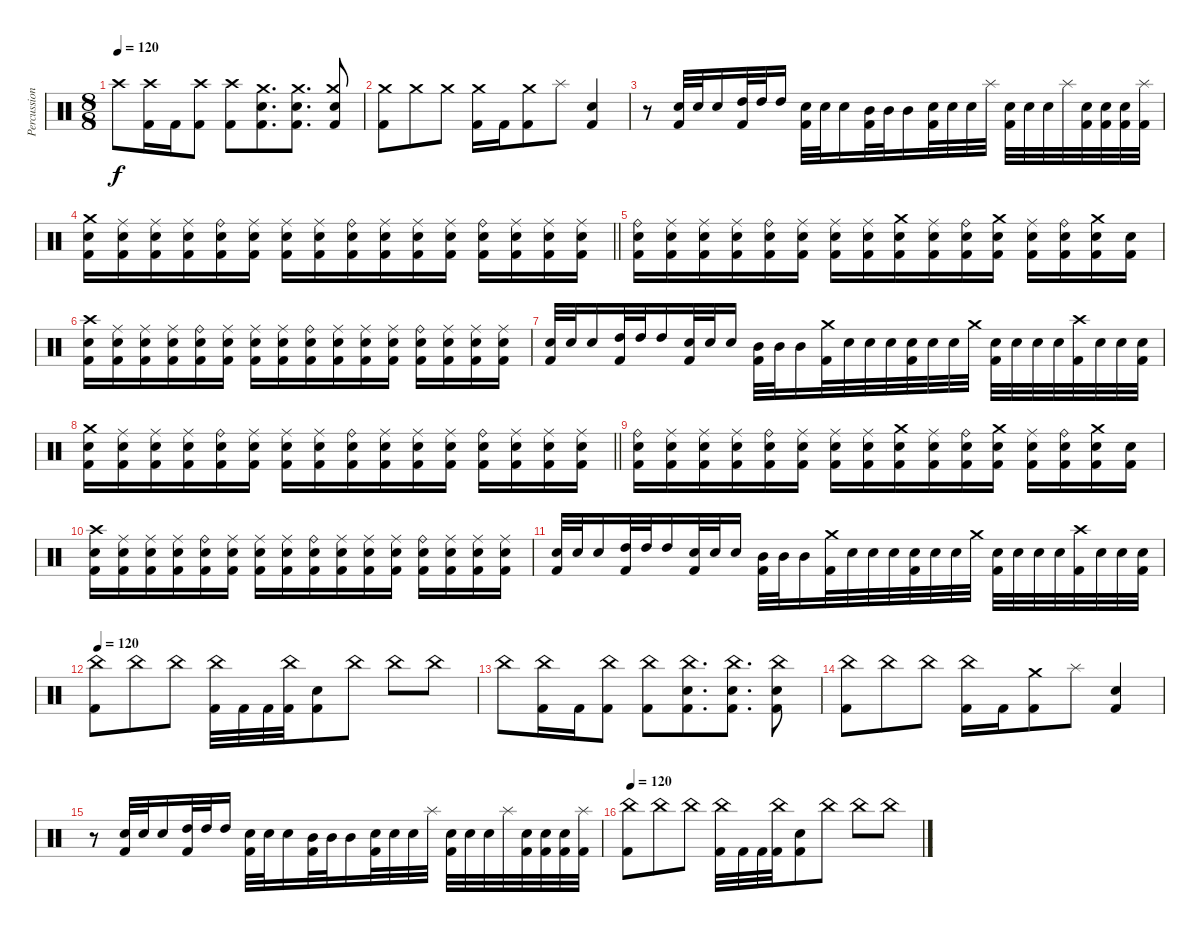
\track ("Percussions" "Percussion") {instrument percussion}
\staff {score}
\articulation defaults
\ts (8 8)
\tempo 120
\clef neutral
\ks c "Crash high (hit)".8{dy f}
("Crash high (hit)" "Kick (hit) 2").16 "Kick (hit) 2".16 ("Crash high (hit)" "Kick (hit) 2").8 ("Crash high (hit)" "Kick (hit) 2").8 ("Crash medium (hit)" "Electric Snare (hit)" "Kick (hit) 2").8{d} ("Crash medium (hit)" "Electric Snare (hit)" "Kick (hit) 2").8{d} ("Crash medium (hit)" "Electric Snare (hit)" "Kick (hit) 2").8 |
("Crash medium (hit)" "Kick (hit) 2").8 "Crash medium (hit)".8 "Crash medium (hit)".8 ("Crash medium (hit)" "Kick (hit) 2").16 "Kick (hit) 2".16 ("Crash medium (hit)" "Kick (hit) 2").8 "Splash (hit)".8 ("Electric Snare (hit)" "Kick (hit) 2").4 |
r.8 ("Electric Snare (hit)" "Kick (hit) 2").32 "Electric Snare (hit)".32 "Electric Snare (hit)".16 ("High Tom (hit)" "Kick (hit) 2").32 "High Tom (hit)".32 "High Tom (hit)".16 ("Electric Snare (hit)" "Kick (hit) 2").32 "Electric Snare (hit)".32 "Electric Snare (hit)".16 ("Mid Tom (hit)" "Kick (hit) 2").32 "Mid Tom (hit)".32 "Mid Tom (hit)".16 ("Electric Snare (hit)" "Kick (hit) 2").32 "Electric Snare (hit)".32 "Electric Snare (hit)".32 "Splash (hit)".32 ("Electric Snare (hit)" "Kick (hit) 2").32 "Electric Snare (hit)".32 "Electric Snare (hit)".32 "Splash (hit)".32 ("Electric Snare (hit)" "Kick (hit) 2").32 ("Electric Snare (hit)" "Kick (hit) 2").32 ("Electric Snare (hit)" "Kick (hit) 2").32 ("Splash (hit)" "Kick (hit) 2").32 |
\barLineRight lightlight
("Crash medium (hit)" "Electric Snare (hit)" "Kick (hit) 2").16 ("Ride (middle)" "Electric Snare (hit)" "Kick (hit) 2").16 ("Ride (middle)" "Electric Snare (hit)" "Kick (hit) 2").16 ("Ride (middle)" "Electric Snare (hit)" "Kick (hit) 2").16 ("Ride (bell)" "Electric Snare (hit)" "Kick (hit) 2").16 ("Ride (middle)" "Electric Snare (hit)" "Kick (hit) 2").16 ("Ride (middle)" "Electric Snare (hit)" "Kick (hit) 2").16 ("Ride (middle)" "Electric Snare (hit)" "Kick (hit) 2").16 ("Ride (bell)" "Electric Snare (hit)" "Kick (hit) 2").16 ("Ride (middle)" "Electric Snare (hit)" "Kick (hit) 2").16 ("Ride (middle)" "Electric Snare (hit)" "Kick (hit) 2").16 ("Ride (middle)" "Electric Snare (hit)" "Kick (hit) 2").16 ("Ride (bell)" "Electric Snare (hit)" "Kick (hit) 2").16 ("Ride (middle)" "Electric Snare (hit)" "Kick (hit) 2").16 ("Ride (middle)" "Electric Snare (hit)" "Kick (hit) 2").16 ("Ride (middle)" "Electric Snare (hit)" "Kick (hit) 2").16 |
\section ("" "")
("Ride (bell)" "Electric Snare (hit)" "Kick (hit) 2").16 ("Ride (middle)" "Electric Snare (hit)" "Kick (hit) 2").16 ("Ride (middle)" "Electric Snare (hit)" "Kick (hit) 2").16 ("Ride (middle)" "Electric Snare (hit)" "Kick (hit) 2").16 ("Ride (bell)" "Electric Snare (hit)" "Kick (hit) 2").16 ("Ride (middle)" "Electric Snare (hit)" "Kick (hit) 2").16 ("Ride (middle)" "Electric Snare (hit)" "Kick (hit) 2").16 ("Ride (middle)" "Electric Snare (hit)" "Kick (hit) 2").16 ("Crash medium (hit)" "Electric Snare (hit)" "Kick (hit) 2").16 ("Ride (middle)" "Electric Snare (hit)" "Kick (hit) 2").16 ("Ride (bell)" "Electric Snare (hit)" "Kick (hit) 2").16 ("Crash medium (hit)" "Electric Snare (hit)" "Kick (hit) 2").16 ("Ride (middle)" "Electric Snare (hit)" "Kick (hit) 2").16 ("Ride (bell)" "Electric Snare (hit)" "Kick (hit) 2").16 ("Crash medium (hit)" "Electric Snare (hit)" "Kick (hit) 2").16 ("Electric Snare (hit)" "Kick (hit) 2").16 |
("Crash high (hit)" "Electric Snare (hit)" "Kick (hit) 2").16 ("Ride (middle)" "Electric Snare (hit)" "Kick (hit) 2").16 ("Ride (middle)" "Electric Snare (hit)" "Kick (hit) 2").16 ("Ride (middle)" "Electric Snare (hit)" "Kick (hit) 2").16 ("Ride (bell)" "Electric Snare (hit)" "Kick (hit) 2").16 ("Ride (middle)" "Electric Snare (hit)" "Kick (hit) 2").16 ("Ride (middle)" "Electric Snare (hit)" "Kick (hit) 2").16 ("Ride (middle)" "Electric Snare (hit)" "Kick (hit) 2").16 ("Ride (bell)" "Electric Snare (hit)" "Kick (hit) 2").16 ("Ride (middle)" "Electric Snare (hit)" "Kick (hit) 2").16 ("Ride (middle)" "Electric Snare (hit)" "Kick (hit) 2").16 ("Ride (middle)" "Electric Snare (hit)" "Kick (hit) 2").16 ("Ride (bell)" "Electric Snare (hit)" "Kick (hit) 2").16 ("Ride (middle)" "Electric Snare (hit)" "Kick (hit) 2").16 ("Ride (middle)" "Electric Snare (hit)" "Kick (hit) 2").16 ("Ride (middle)" "Electric Snare (hit)" "Kick (hit) 2").16 |
("Electric Snare (hit)" "Kick (hit) 2").32 "Electric Snare (hit)".32 "Electric Snare (hit)".16 ("High Tom (hit)" "Kick (hit) 2").32 "High Tom (hit)".32 "High Tom (hit)".16 ("Electric Snare (hit)" "Kick (hit) 2").32 "Electric Snare (hit)".32 "Electric Snare (hit)".16 ("Mid Tom (hit)" "Kick (hit) 2").32 "Mid Tom (hit)".32 "Mid Tom (hit)".16 ("Crash medium (hit)" "Kick (hit) 2").32 "Electric Snare (hit)".32 "Electric Snare (hit)".32 "Electric Snare (hit)".32 ("Electric Snare (hit)" "Kick (hit) 2").32 "Electric Snare (hit)".32 "Electric Snare (hit)".32 "Crash medium (hit)".32 ("Electric Snare (hit)" "Kick (hit) 2").32 "Electric Snare (hit)".32 "Electric Snare (hit)".32 "Electric Snare (hit)".32 ("Crash high (hit)" "Kick (hit) 2").32 "Electric Snare (hit)".32 "Electric Snare (hit)".32 ("Electric Snare (hit)" "Kick (hit) 2").32 |
\barLineRight lightlight
("Crash medium (hit)" "Electric Snare (hit)" "Kick (hit) 2").16 ("Ride (middle)" "Electric Snare (hit)" "Kick (hit) 2").16 ("Ride (middle)" "Electric Snare (hit)" "Kick (hit) 2").16 ("Ride (middle)" "Electric Snare (hit)" "Kick (hit) 2").16 ("Ride (bell)" "Electric Snare (hit)" "Kick (hit) 2").16 ("Ride (middle)" "Electric Snare (hit)" "Kick (hit) 2").16 ("Ride (middle)" "Electric Snare (hit)" "Kick (hit) 2").16 ("Ride (middle)" "Electric Snare (hit)" "Kick (hit) 2").16 ("Ride (bell)" "Electric Snare (hit)" "Kick (hit) 2").16 ("Ride (middle)" "Electric Snare (hit)" "Kick (hit) 2").16 ("Ride (middle)" "Electric Snare (hit)" "Kick (hit) 2").16 ("Ride (middle)" "Electric Snare (hit)" "Kick (hit) 2").16 ("Ride (bell)" "Electric Snare (hit)" "Kick (hit) 2").16 ("Ride (middle)" "Electric Snare (hit)" "Kick (hit) 2").16 ("Ride (middle)" "Electric Snare (hit)" "Kick (hit) 2").16 ("Ride (middle)" "Electric Snare (hit)" "Kick (hit) 2").16 |
("Ride (bell)" "Electric Snare (hit)" "Kick (hit) 2").16 ("Ride (middle)" "Electric Snare (hit)" "Kick (hit) 2").16 ("Ride (middle)" "Electric Snare (hit)" "Kick (hit) 2").16 ("Ride (middle)" "Electric Snare (hit)" "Kick (hit) 2").16 ("Ride (bell)" "Electric Snare (hit)" "Kick (hit) 2").16 ("Ride (middle)" "Electric Snare (hit)" "Kick (hit) 2").16 ("Ride (middle)" "Electric Snare (hit)" "Kick (hit) 2").16 ("Ride (middle)" "Electric Snare (hit)" "Kick (hit) 2").16 ("Crash medium (hit)" "Electric Snare (hit)" "Kick (hit) 2").16 ("Ride (middle)" "Electric Snare (hit)" "Kick (hit) 2").16 ("Ride (bell)" "Electric Snare (hit)" "Kick (hit) 2").16 ("Crash medium (hit)" "Electric Snare (hit)" "Kick (hit) 2").16 ("Ride (middle)" "Electric Snare (hit)" "Kick (hit) 2").16 ("Ride (bell)" "Electric Snare (hit)" "Kick (hit) 2").16 ("Crash medium (hit)" "Electric Snare (hit)" "Kick (hit) 2").16 ("Electric Snare (hit)" "Kick (hit) 2").16 |
("Crash high (hit)" "Electric Snare (hit)" "Kick (hit) 2").16 ("Ride (middle)" "Electric Snare (hit)" "Kick (hit) 2").16 ("Ride (middle)" "Electric Snare (hit)" "Kick (hit) 2").16 ("Ride (middle)" "Electric Snare (hit)" "Kick (hit) 2").16 ("Ride (bell)" "Electric Snare (hit)" "Kick (hit) 2").16 ("Ride (middle)" "Electric Snare (hit)" "Kick (hit) 2").16 ("Ride (middle)" "Electric Snare (hit)" "Kick (hit) 2").16 ("Ride (middle)" "Electric Snare (hit)" "Kick (hit) 2").16 ("Ride (bell)" "Electric Snare (hit)" "Kick (hit) 2").16 ("Ride (middle)" "Electric Snare (hit)" "Kick (hit) 2").16 ("Ride (middle)" "Electric Snare (hit)" "Kick (hit) 2").16 ("Ride (middle)" "Electric Snare (hit)" "Kick (hit) 2").16 ("Ride (bell)" "Electric Snare (hit)" "Kick (hit) 2").16 ("Ride (middle)" "Electric Snare (hit)" "Kick (hit) 2").16 ("Ride (middle)" "Electric Snare (hit)" "Kick (hit) 2").16 ("Ride (middle)" "Electric Snare (hit)" "Kick (hit) 2").16 |
("Electric Snare (hit)" "Kick (hit) 2").32 "Electric Snare (hit)".32 "Electric Snare (hit)".16 ("High Tom (hit)" "Kick (hit) 2").32 "High Tom (hit)".32 "High Tom (hit)".16 ("Electric Snare (hit)" "Kick (hit) 2").32 "Electric Snare (hit)".32 "Electric Snare (hit)".16 ("Mid Tom (hit)" "Kick (hit) 2").32 "Mid Tom (hit)".32 "Mid Tom (hit)".16 ("Crash medium (hit)" "Kick (hit) 2").32 "Electric Snare (hit)".32 "Electric Snare (hit)".32 "Electric Snare (hit)".32 ("Electric Snare (hit)" "Kick (hit) 2").32 "Electric Snare (hit)".32 "Electric Snare (hit)".32 "Crash medium (hit)".32 ("Electric Snare (hit)" "Kick (hit) 2").32 "Electric Snare (hit)".32 "Electric Snare (hit)".32 "Electric Snare (hit)".32 ("Crash high (hit)" "Kick (hit) 2").32 "Electric Snare (hit)".32 "Electric Snare (hit)".32 ("Electric Snare (hit)" "Kick (hit) 2").32 |
\tempo 120
("China (hit)" "Kick (hit) 2").8 "China (hit)".8 "China (hit)".8 ("China (hit)" "Kick (hit) 2").32 "Kick (hit) 2".32 "Kick (hit) 2".32 ("China (hit)" "Kick (hit) 2").32 ("Electric Snare (hit)" "Kick (hit) 2").8 "China (hit)".8 "China (hit)".8 "China (hit)".8 |
"China (hit)".8 ("China (hit)" "Kick (hit) 2").16 "Kick (hit) 2".16 ("China (hit)" "Kick (hit) 2").8 ("China (hit)" "Kick (hit) 2").8 ("China (hit)" "Electric Snare (hit)" "Kick (hit) 2").8{d} ("China (hit)" "Electric Snare (hit)" "Kick (hit) 2").8{d} ("China (hit)" "Electric Snare (hit)" "Kick (hit) 2").8 |
("China (hit)" "Kick (hit) 2").8 "China (hit)".8 "China (hit)".8 ("China (hit)" "Kick (hit) 2").16 "Kick (hit) 2".16 ("Crash medium (hit)" "Kick (hit) 2").8 "Splash (hit)".8 ("Electric Snare (hit)" "Kick (hit) 2").4 |
r.8 ("Electric Snare (hit)" "Kick (hit) 2").32 "Electric Snare (hit)".32 "Electric Snare (hit)".16 ("High Tom (hit)" "Kick (hit) 2").32 "High Tom (hit)".32 "High Tom (hit)".16 ("Electric Snare (hit)" "Kick (hit) 2").32 "Electric Snare (hit)".32 "Electric Snare (hit)".16 ("Mid Tom (hit)" "Kick (hit) 2").32 "Mid Tom (hit)".32 "Mid Tom (hit)".16 ("Electric Snare (hit)" "Kick (hit) 2").32 "Electric Snare (hit)".32 "Electric Snare (hit)".32 "Splash (hit)".32 ("Electric Snare (hit)" "Kick (hit) 2").32 "Electric Snare (hit)".32 "Electric Snare (hit)".32 "Splash (hit)".32 ("Electric Snare (hit)" "Kick (hit) 2").32 ("Electric Snare (hit)" "Kick (hit) 2").32 ("Electric Snare (hit)" "Kick (hit) 2").32 ("Splash (hit)" "Kick (hit) 2").32 |
\tempo 120
("China (hit)" "Kick (hit) 2").8 "China (hit)".8 "China (hit)".8 ("China (hit)" "Kick (hit) 2").32 "Kick (hit) 2".32 "Kick (hit) 2".32 ("China (hit)" "Kick (hit) 2").32 ("Electric Snare (hit)" "Kick (hit) 2").8 "China (hit)".8 "China (hit)".8 "China (hit)".8
